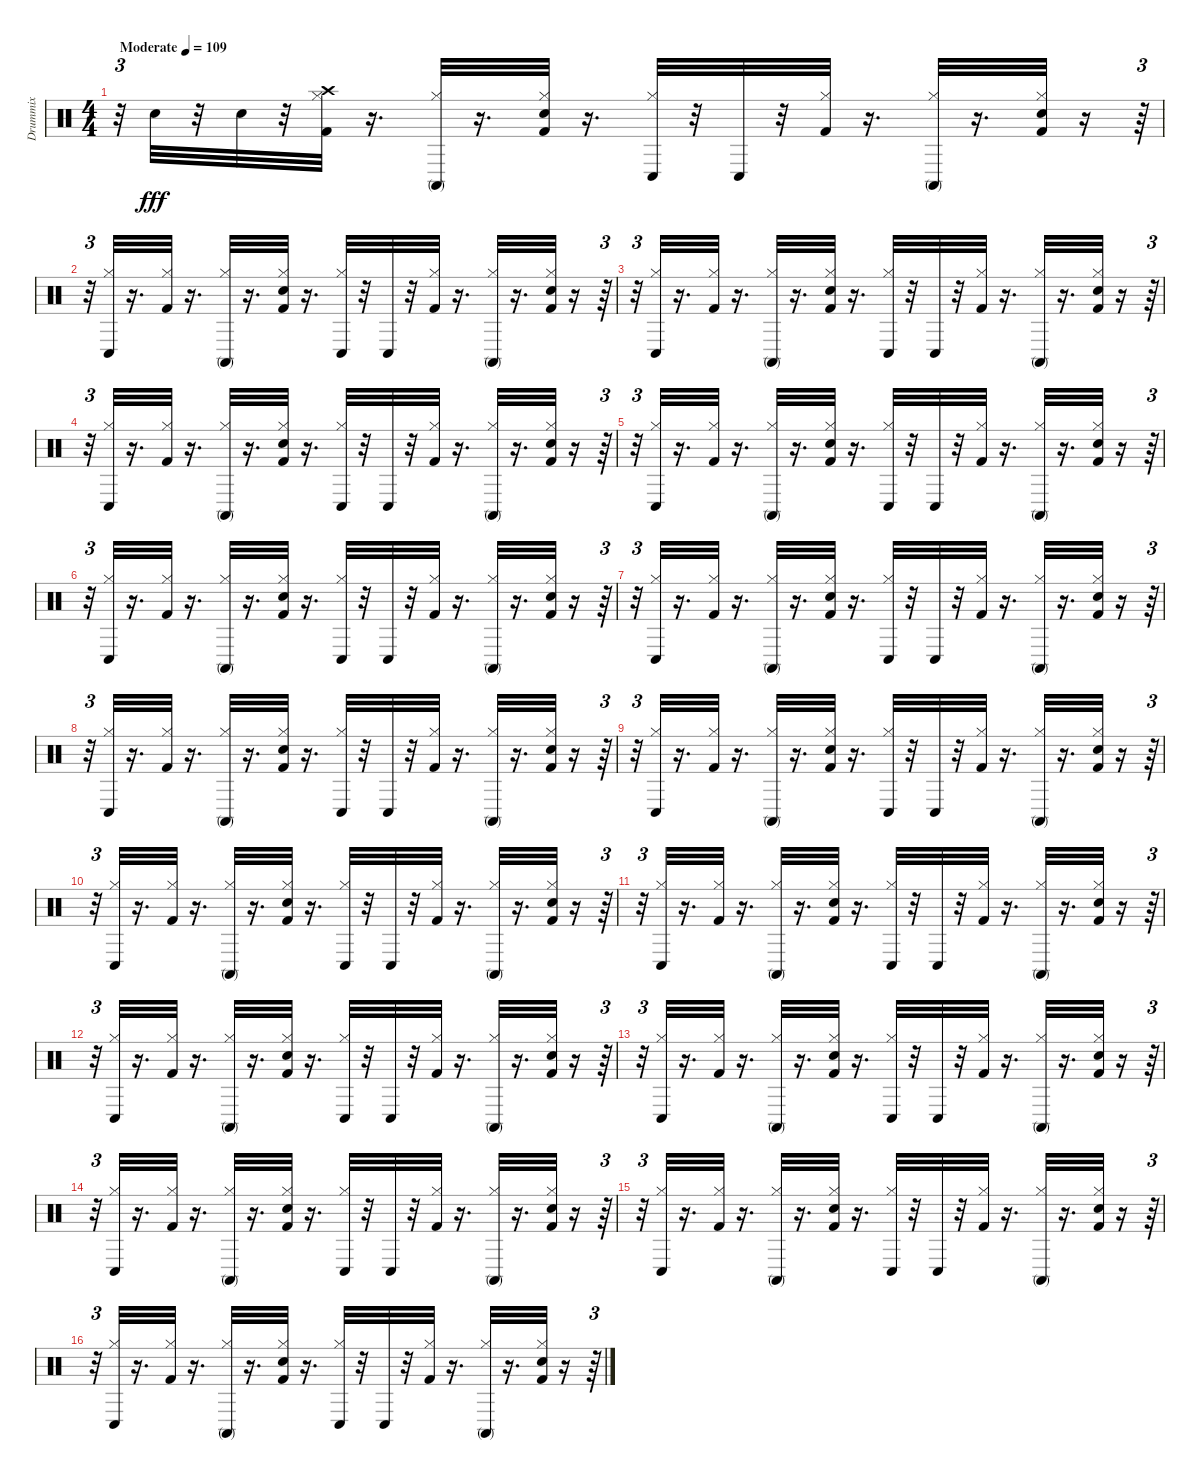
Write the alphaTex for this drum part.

\track ("Drummix" "Drummix") {instrument percussion}
\staff {score}
\articulation defaults
\ts (4 4)
\tempo (109 "Moderate")
\clef neutral
\ks c
r.32{tu (3 2) dy fff} "Snare (hit) 2".32 r.32 "Snare (hit) 2".32 r.32 ("Kick (hit) 2" "Hi-Hat (closed)" "Crash high (hit)").32 r.16{d} ("Hi-Hat (closed)" "Conga high (mute)").32 r.16{d} ("Kick (hit) 2" "Snare (hit) 2" "Hi-Hat (closed)").32 r.16{d} ("Hi-Hat (closed)" "Conga low (hit)").32 r.32 "Conga low (hit)".32 r.32 ("Kick (hit) 2" "Hi-Hat (closed)").32 r.16{d} ("Hi-Hat (closed)" "Conga high (mute)").32 r.16{d} ("Kick (hit) 2" "Snare (hit) 2" "Hi-Hat (closed)").32 r.16 r.64{tu (3 2)} |
r.32{tu (3 2)} ("Hi-Hat (closed)" "Conga low (hit)").32 r.16{d} ("Kick (hit) 2" "Hi-Hat (closed)").32 r.16{d} ("Hi-Hat (closed)" "Conga high (mute)").32 r.16{d} ("Kick (hit) 2" "Snare (hit) 2" "Hi-Hat (closed)").32 r.16{d} ("Hi-Hat (closed)" "Conga low (hit)").32 r.32 "Conga low (hit)".32 r.32 ("Kick (hit) 2" "Hi-Hat (closed)").32 r.16{d} ("Hi-Hat (closed)" "Conga high (mute)").32 r.16{d} ("Kick (hit) 2" "Snare (hit) 2" "Hi-Hat (closed)").32 r.16 r.64{tu (3 2)} |
r.32{tu (3 2)} ("Hi-Hat (closed)" "Conga low (hit)").32 r.16{d} ("Kick (hit) 2" "Hi-Hat (closed)").32 r.16{d} ("Hi-Hat (closed)" "Conga high (mute)").32 r.16{d} ("Kick (hit) 2" "Snare (hit) 2" "Hi-Hat (closed)").32 r.16{d} ("Hi-Hat (closed)" "Conga low (hit)").32 r.32 "Conga low (hit)".32 r.32 ("Kick (hit) 2" "Hi-Hat (closed)").32 r.16{d} ("Hi-Hat (closed)" "Conga high (mute)").32 r.16{d} ("Kick (hit) 2" "Snare (hit) 2" "Hi-Hat (closed)").32 r.16 r.64{tu (3 2)} |
r.32{tu (3 2)} ("Hi-Hat (closed)" "Conga low (hit)").32 r.16{d} ("Kick (hit) 2" "Hi-Hat (closed)").32 r.16{d} ("Hi-Hat (closed)" "Conga high (mute)").32 r.16{d} ("Kick (hit) 2" "Snare (hit) 2" "Hi-Hat (closed)").32 r.16{d} ("Hi-Hat (closed)" "Conga low (hit)").32 r.32 "Conga low (hit)".32 r.32 ("Kick (hit) 2" "Hi-Hat (closed)").32 r.16{d} ("Hi-Hat (closed)" "Conga high (mute)").32 r.16{d} ("Kick (hit) 2" "Snare (hit) 2" "Hi-Hat (closed)").32 r.16 r.64{tu (3 2)} |
r.32{tu (3 2)} ("Hi-Hat (closed)" "Conga low (hit)").32 r.16{d} ("Kick (hit) 2" "Hi-Hat (closed)").32 r.16{d} ("Hi-Hat (closed)" "Conga high (mute)").32 r.16{d} ("Kick (hit) 2" "Snare (hit) 2" "Hi-Hat (closed)").32 r.16{d} ("Hi-Hat (closed)" "Conga low (hit)").32 r.32 "Conga low (hit)".32 r.32 ("Kick (hit) 2" "Hi-Hat (closed)").32 r.16{d} ("Hi-Hat (closed)" "Conga high (mute)").32 r.16{d} ("Kick (hit) 2" "Snare (hit) 2" "Hi-Hat (closed)").32 r.16 r.64{tu (3 2)} |
r.32{tu (3 2)} ("Hi-Hat (closed)" "Conga low (hit)").32 r.16{d} ("Kick (hit) 2" "Hi-Hat (closed)").32 r.16{d} ("Hi-Hat (closed)" "Conga high (mute)").32 r.16{d} ("Kick (hit) 2" "Snare (hit) 2" "Hi-Hat (closed)").32 r.16{d} ("Hi-Hat (closed)" "Conga low (hit)").32 r.32 "Conga low (hit)".32 r.32 ("Kick (hit) 2" "Hi-Hat (closed)").32 r.16{d} ("Hi-Hat (closed)" "Conga high (mute)").32 r.16{d} ("Kick (hit) 2" "Snare (hit) 2" "Hi-Hat (closed)").32 r.16 r.64{tu (3 2)} |
r.32{tu (3 2)} ("Hi-Hat (closed)" "Conga low (hit)").32 r.16{d} ("Kick (hit) 2" "Hi-Hat (closed)").32 r.16{d} ("Hi-Hat (closed)" "Conga high (mute)").32 r.16{d} ("Kick (hit) 2" "Snare (hit) 2" "Hi-Hat (closed)").32 r.16{d} ("Hi-Hat (closed)" "Conga low (hit)").32 r.32 "Conga low (hit)".32 r.32 ("Kick (hit) 2" "Hi-Hat (closed)").32 r.16{d} ("Hi-Hat (closed)" "Conga high (mute)").32 r.16{d} ("Kick (hit) 2" "Snare (hit) 2" "Hi-Hat (closed)").32 r.16 r.64{tu (3 2)} |
r.32{tu (3 2)} ("Hi-Hat (closed)" "Conga low (hit)").32 r.16{d} ("Kick (hit) 2" "Hi-Hat (closed)").32 r.16{d} ("Hi-Hat (closed)" "Conga high (mute)").32 r.16{d} ("Kick (hit) 2" "Snare (hit) 2" "Hi-Hat (closed)").32 r.16{d} ("Hi-Hat (closed)" "Conga low (hit)").32 r.32 "Conga low (hit)".32 r.32 ("Kick (hit) 2" "Hi-Hat (closed)").32 r.16{d} ("Hi-Hat (closed)" "Conga high (mute)").32 r.16{d} ("Kick (hit) 2" "Snare (hit) 2" "Hi-Hat (closed)").32 r.16 r.64{tu (3 2)} |
r.32{tu (3 2)} ("Hi-Hat (closed)" "Conga low (hit)").32 r.16{d} ("Kick (hit) 2" "Hi-Hat (closed)").32 r.16{d} ("Hi-Hat (closed)" "Conga high (mute)").32 r.16{d} ("Kick (hit) 2" "Snare (hit) 2" "Hi-Hat (closed)").32 r.16{d} ("Hi-Hat (closed)" "Conga low (hit)").32 r.32 "Conga low (hit)".32 r.32 ("Kick (hit) 2" "Hi-Hat (closed)").32 r.16{d} ("Hi-Hat (closed)" "Conga high (mute)").32 r.16{d} ("Kick (hit) 2" "Snare (hit) 2" "Hi-Hat (closed)").32 r.16 r.64{tu (3 2)} |
r.32{tu (3 2)} ("Hi-Hat (closed)" "Conga low (hit)").32 r.16{d} ("Kick (hit) 2" "Hi-Hat (closed)").32 r.16{d} ("Hi-Hat (closed)" "Conga high (mute)").32 r.16{d} ("Kick (hit) 2" "Snare (hit) 2" "Hi-Hat (closed)").32 r.16{d} ("Hi-Hat (closed)" "Conga low (hit)").32 r.32 "Conga low (hit)".32 r.32 ("Kick (hit) 2" "Hi-Hat (closed)").32 r.16{d} ("Hi-Hat (closed)" "Conga high (mute)").32 r.16{d} ("Kick (hit) 2" "Snare (hit) 2" "Hi-Hat (closed)").32 r.16 r.64{tu (3 2)} |
r.32{tu (3 2)} ("Hi-Hat (closed)" "Conga low (hit)").32 r.16{d} ("Kick (hit) 2" "Hi-Hat (closed)").32 r.16{d} ("Hi-Hat (closed)" "Conga high (mute)").32 r.16{d} ("Kick (hit) 2" "Snare (hit) 2" "Hi-Hat (closed)").32 r.16{d} ("Hi-Hat (closed)" "Conga low (hit)").32 r.32 "Conga low (hit)".32 r.32 ("Kick (hit) 2" "Hi-Hat (closed)").32 r.16{d} ("Hi-Hat (closed)" "Conga high (mute)").32 r.16{d} ("Kick (hit) 2" "Snare (hit) 2" "Hi-Hat (closed)").32 r.16 r.64{tu (3 2)} |
r.32{tu (3 2)} ("Hi-Hat (closed)" "Conga low (hit)").32 r.16{d} ("Kick (hit) 2" "Hi-Hat (closed)").32 r.16{d} ("Hi-Hat (closed)" "Conga high (mute)").32 r.16{d} ("Kick (hit) 2" "Snare (hit) 2" "Hi-Hat (closed)").32 r.16{d} ("Hi-Hat (closed)" "Conga low (hit)").32 r.32 "Conga low (hit)".32 r.32 ("Kick (hit) 2" "Hi-Hat (closed)").32 r.16{d} ("Hi-Hat (closed)" "Conga high (mute)").32 r.16{d} ("Kick (hit) 2" "Snare (hit) 2" "Hi-Hat (closed)").32 r.16 r.64{tu (3 2)} |
r.32{tu (3 2)} ("Hi-Hat (closed)" "Conga low (hit)").32 r.16{d} ("Kick (hit) 2" "Hi-Hat (closed)").32 r.16{d} ("Hi-Hat (closed)" "Conga high (mute)").32 r.16{d} ("Kick (hit) 2" "Snare (hit) 2" "Hi-Hat (closed)").32 r.16{d} ("Hi-Hat (closed)" "Conga low (hit)").32 r.32 "Conga low (hit)".32 r.32 ("Kick (hit) 2" "Hi-Hat (closed)").32 r.16{d} ("Hi-Hat (closed)" "Conga high (mute)").32 r.16{d} ("Kick (hit) 2" "Snare (hit) 2" "Hi-Hat (closed)").32 r.16 r.64{tu (3 2)} |
r.32{tu (3 2)} ("Hi-Hat (closed)" "Conga low (hit)").32 r.16{d} ("Kick (hit) 2" "Hi-Hat (closed)").32 r.16{d} ("Hi-Hat (closed)" "Conga high (mute)").32 r.16{d} ("Kick (hit) 2" "Snare (hit) 2" "Hi-Hat (closed)").32 r.16{d} ("Hi-Hat (closed)" "Conga low (hit)").32 r.32 "Conga low (hit)".32 r.32 ("Kick (hit) 2" "Hi-Hat (closed)").32 r.16{d} ("Hi-Hat (closed)" "Conga high (mute)").32 r.16{d} ("Kick (hit) 2" "Snare (hit) 2" "Hi-Hat (closed)").32 r.16 r.64{tu (3 2)} |
r.32{tu (3 2)} ("Hi-Hat (closed)" "Conga low (hit)").32 r.16{d} ("Kick (hit) 2" "Hi-Hat (closed)").32 r.16{d} ("Hi-Hat (closed)" "Conga high (mute)").32 r.16{d} ("Kick (hit) 2" "Snare (hit) 2" "Hi-Hat (closed)").32 r.16{d} ("Hi-Hat (closed)" "Conga low (hit)").32 r.32 "Conga low (hit)".32 r.32 ("Kick (hit) 2" "Hi-Hat (closed)").32 r.16{d} ("Hi-Hat (closed)" "Conga high (mute)").32 r.16{d} ("Kick (hit) 2" "Snare (hit) 2" "Hi-Hat (closed)").32 r.16 r.64{tu (3 2)} |
r.32{tu (3 2)} ("Hi-Hat (closed)" "Conga low (hit)").32 r.16{d} ("Kick (hit) 2" "Hi-Hat (closed)").32 r.16{d} ("Hi-Hat (closed)" "Conga high (mute)").32 r.16{d} ("Kick (hit) 2" "Snare (hit) 2" "Hi-Hat (closed)").32 r.16{d} ("Hi-Hat (closed)" "Conga low (hit)").32 r.32 "Conga low (hit)".32 r.32 ("Kick (hit) 2" "Hi-Hat (closed)").32 r.16{d} ("Hi-Hat (closed)" "Conga high (mute)").32 r.16{d} ("Kick (hit) 2" "Snare (hit) 2" "Hi-Hat (closed)").32 r.16 r.64{tu (3 2)}
